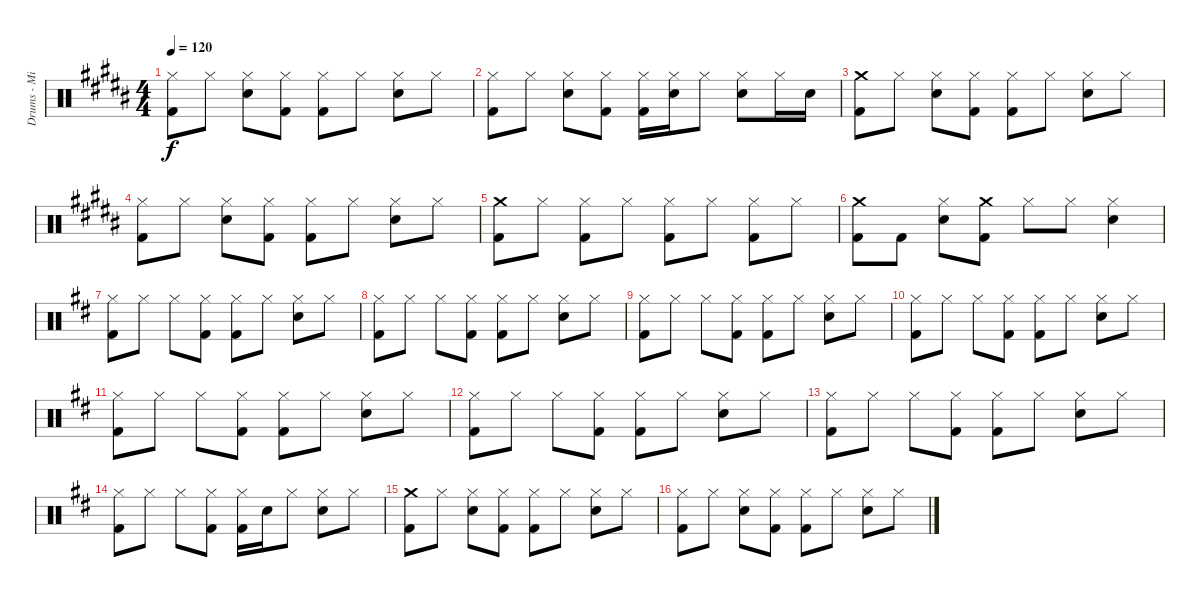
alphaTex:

\track ("Drums - Minh-Thu" "Drums - Mi") {instrument percussion}
\staff {score}
\articulation defaults
\ts (4 4)
\tempo 120
\clef neutral
\ks b
("Hi-Hat (closed)" "Kick (hit) 2").8{dy f} "Hi-Hat (closed)".8 ("Hi-Hat (closed)" "Electric Snare (hit)").8 ("Hi-Hat (closed)" "Kick (hit) 2").8 ("Hi-Hat (closed)" "Kick (hit) 2").8 "Hi-Hat (closed)".8 ("Hi-Hat (closed)" "Electric Snare (hit)").8 "Hi-Hat (closed)".8 |
("Hi-Hat (closed)" "Kick (hit) 2").8 "Hi-Hat (closed)".8 ("Hi-Hat (closed)" "Electric Snare (hit)").8 ("Hi-Hat (closed)" "Kick (hit) 2").8 ("Hi-Hat (closed)" "Kick (hit) 2").16 ("Hi-Hat (closed)" "Electric Snare (hit)").16 "Hi-Hat (closed)".8 ("Hi-Hat (closed)" "Electric Snare (hit)").8 "Hi-Hat (closed)".16 "Electric Snare (hit)".16 |
("Crash medium (hit)" "Kick (hit) 2").8 "Hi-Hat (closed)".8 ("Hi-Hat (closed)" "Electric Snare (hit)").8 ("Hi-Hat (closed)" "Kick (hit) 2").8 ("Hi-Hat (closed)" "Kick (hit) 2").8 "Hi-Hat (closed)".8 ("Hi-Hat (closed)" "Electric Snare (hit)").8 "Hi-Hat (closed)".8 |
("Hi-Hat (closed)" "Kick (hit) 2").8 "Hi-Hat (closed)".8 ("Hi-Hat (closed)" "Electric Snare (hit)").8 ("Hi-Hat (closed)" "Kick (hit) 2").8 ("Hi-Hat (closed)" "Kick (hit) 2").8 "Hi-Hat (closed)".8 ("Hi-Hat (closed)" "Electric Snare (hit)").8 "Hi-Hat (closed)".8 |
("Crash medium (hit)" "Kick (hit) 2").8 "Hi-Hat (closed)".8 ("Hi-Hat (closed)" "Kick (hit) 2").8 "Hi-Hat (closed)".8 ("Hi-Hat (closed)" "Kick (hit) 2").8 "Hi-Hat (closed)".8 ("Hi-Hat (closed)" "Kick (hit) 2").8 "Hi-Hat (closed)".8 |
("Crash medium (hit)" "Kick (hit) 2").8 "Kick (hit) 2".8 ("Hi-Hat (closed)" "Electric Snare (hit)").8 ("Crash medium (hit)" "Kick (hit) 2").8 "Hi-Hat (closed)".8 "Hi-Hat (closed)".8 ("Hi-Hat (closed)" "Electric Snare (hit)").4 |
\ks d
("Hi-Hat (closed)" "Kick (hit) 2").8 "Hi-Hat (closed)".8 "Hi-Hat (closed)".8 ("Hi-Hat (closed)" "Kick (hit) 2").8 ("Hi-Hat (closed)" "Kick (hit) 2").8 "Hi-Hat (closed)".8 ("Hi-Hat (closed)" "Electric Snare (hit)").8 "Hi-Hat (closed)".8 |
("Hi-Hat (closed)" "Kick (hit) 2").8 "Hi-Hat (closed)".8 "Hi-Hat (closed)".8 ("Hi-Hat (closed)" "Kick (hit) 2").8 ("Hi-Hat (closed)" "Kick (hit) 2").8 "Hi-Hat (closed)".8 ("Hi-Hat (closed)" "Electric Snare (hit)").8 "Hi-Hat (closed)".8 |
("Hi-Hat (closed)" "Kick (hit) 2").8 "Hi-Hat (closed)".8 "Hi-Hat (closed)".8 ("Hi-Hat (closed)" "Kick (hit) 2").8 ("Hi-Hat (closed)" "Kick (hit) 2").8 "Hi-Hat (closed)".8 ("Hi-Hat (closed)" "Electric Snare (hit)").8 "Hi-Hat (closed)".8 |
("Hi-Hat (closed)" "Kick (hit) 2").8 "Hi-Hat (closed)".8 "Hi-Hat (closed)".8 ("Hi-Hat (closed)" "Kick (hit) 2").8 ("Hi-Hat (closed)" "Kick (hit) 2").8 "Hi-Hat (closed)".8 ("Hi-Hat (closed)" "Electric Snare (hit)").8 "Hi-Hat (closed)".8 |
("Hi-Hat (closed)" "Kick (hit) 2").8 "Hi-Hat (closed)".8 "Hi-Hat (closed)".8 ("Hi-Hat (closed)" "Kick (hit) 2").8 ("Hi-Hat (closed)" "Kick (hit) 2").8 "Hi-Hat (closed)".8 ("Hi-Hat (closed)" "Electric Snare (hit)").8 "Hi-Hat (closed)".8 |
("Hi-Hat (closed)" "Kick (hit) 2").8 "Hi-Hat (closed)".8 "Hi-Hat (closed)".8 ("Hi-Hat (closed)" "Kick (hit) 2").8 ("Hi-Hat (closed)" "Kick (hit) 2").8 "Hi-Hat (closed)".8 ("Hi-Hat (closed)" "Electric Snare (hit)").8 "Hi-Hat (closed)".8 |
("Hi-Hat (closed)" "Kick (hit) 2").8 "Hi-Hat (closed)".8 "Hi-Hat (closed)".8 ("Hi-Hat (closed)" "Kick (hit) 2").8 ("Hi-Hat (closed)" "Kick (hit) 2").8 "Hi-Hat (closed)".8 ("Hi-Hat (closed)" "Electric Snare (hit)").8 "Hi-Hat (closed)".8 |
("Hi-Hat (closed)" "Kick (hit) 2").8 "Hi-Hat (closed)".8 "Hi-Hat (closed)".8 ("Hi-Hat (closed)" "Kick (hit) 2").8 ("Hi-Hat (closed)" "Kick (hit) 2").16 "Electric Snare (hit)".16 "Hi-Hat (closed)".8 ("Hi-Hat (closed)" "Electric Snare (hit)").8 "Hi-Hat (closed)".8 |
("Crash medium (hit)" "Kick (hit) 2").8 "Hi-Hat (closed)".8 ("Hi-Hat (closed)" "Electric Snare (hit)").8 ("Hi-Hat (closed)" "Kick (hit) 2").8 ("Hi-Hat (closed)" "Kick (hit) 2").8 "Hi-Hat (closed)".8 ("Hi-Hat (closed)" "Electric Snare (hit)").8 "Hi-Hat (closed)".8 |
("Hi-Hat (closed)" "Kick (hit) 2").8 "Hi-Hat (closed)".8 ("Hi-Hat (closed)" "Electric Snare (hit)").8 ("Hi-Hat (closed)" "Kick (hit) 2").8 ("Hi-Hat (closed)" "Kick (hit) 2").8 "Hi-Hat (closed)".8 ("Hi-Hat (closed)" "Electric Snare (hit)").8 "Hi-Hat (closed)".8
